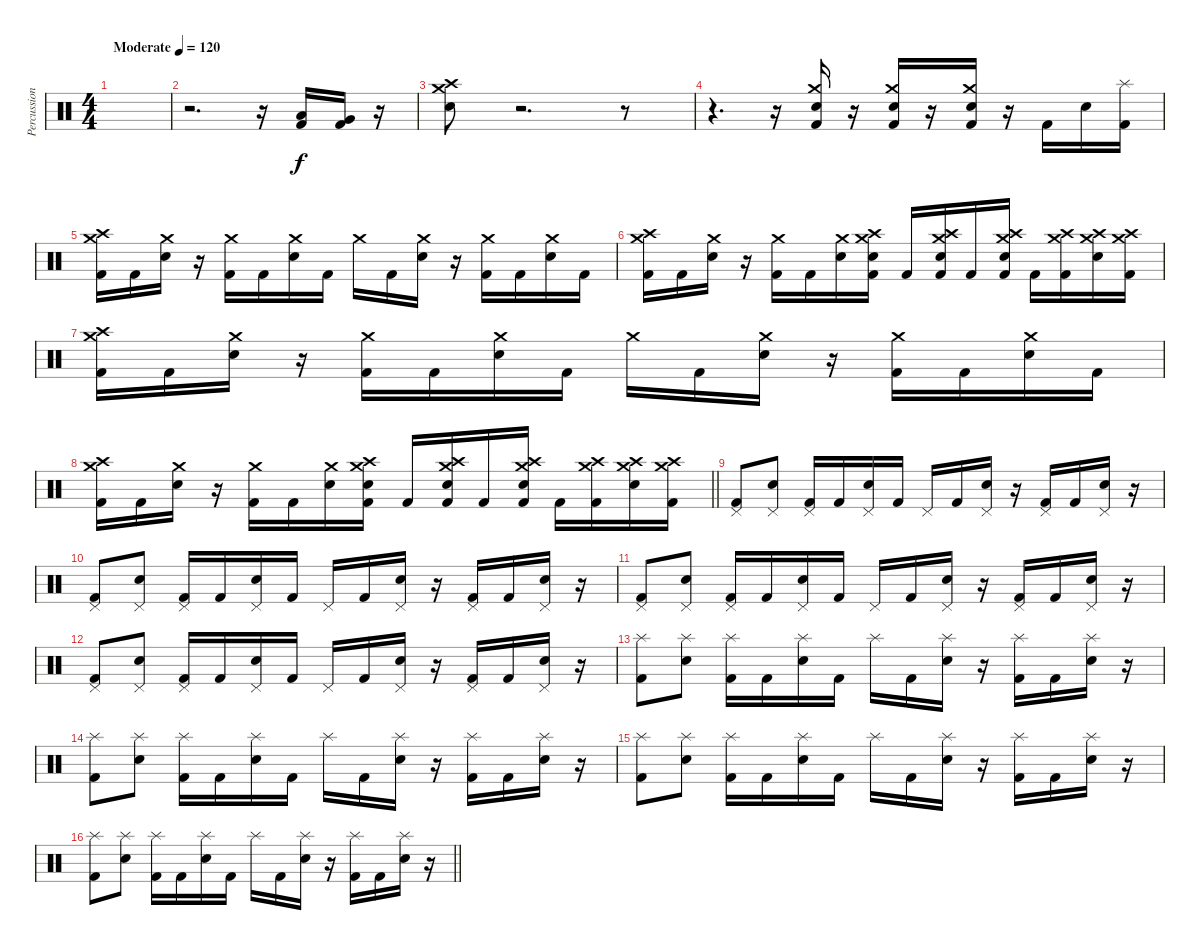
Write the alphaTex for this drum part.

\track ("Percussion" "Percussion") {instrument percussion}
\staff {score}
\articulation defaults
\ts (4 4)
\tempo (120 "Moderate")
\clef neutral
\ks c
|
r.2{d} r.16 ("Low Tom (hit)" "Kick (hit) 2").16 ("Very Low Tom (hit)" "Kick (hit) 2").16 r.16 |
("Crash high (hit)" "Crash medium (hit)" "Electric Snare (hit)").8 r.2{d} r.8 |
r.4{d} r.16 ("Kick (hit) 2" "Crash medium (hit)" "Electric Snare (hit)").16 r.16 ("Kick (hit) 2" "Crash medium (hit)" "Electric Snare (hit)").16 r.16 ("Kick (hit) 2" "Crash medium (hit)" "Electric Snare (hit)").16 r.16 "Kick (hit) 2".16 "Electric Snare (hit)".16 ("Splash (hit)" "Kick (hit) 2").16 |
("Crash medium (hit)" "Crash high (hit)" "Kick (hit) 2").16 "Kick (hit) 2".16 ("Crash medium (hit)" "Electric Snare (hit)").16 r.16 ("Crash medium (hit)" "Kick (hit) 2").16 "Kick (hit) 2".16 ("Crash medium (hit)" "Electric Snare (hit)").16 "Kick (hit) 2".16 "Crash medium (hit)".16 "Kick (hit) 2".16 ("Crash medium (hit)" "Electric Snare (hit)").16 r.16 ("Crash medium (hit)" "Kick (hit) 2").16 "Kick (hit) 2".16 ("Crash medium (hit)" "Electric Snare (hit)").16 "Kick (hit) 2".16 |
("Crash medium (hit)" "Crash high (hit)" "Kick (hit) 2").16 "Kick (hit) 2".16 ("Crash medium (hit)" "Electric Snare (hit)").16 r.16 ("Crash medium (hit)" "Kick (hit) 2").16 "Kick (hit) 2".16 ("Crash medium (hit)" "Electric Snare (hit)").16 ("Crash high (hit)" "Crash medium (hit)" "Electric Snare (hit)" "Kick (hit) 2").16 "Kick (hit) 2".16 ("Crash high (hit)" "Crash medium (hit)" "Electric Snare (hit)" "Kick (hit) 2").16 "Kick (hit) 2".16 ("Crash high (hit)" "Crash medium (hit)" "Electric Snare (hit)" "Kick (hit) 2").16 "Kick (hit) 2".16 ("Crash high (hit)" "Crash medium (hit)" "Kick (hit) 2").16 ("Crash high (hit)" "Crash medium (hit)" "Electric Snare (hit)").16 ("Crash high (hit)" "Crash medium (hit)" "Kick (hit) 2").16 |
("Crash medium (hit)" "Crash high (hit)" "Kick (hit) 2").16 "Kick (hit) 2".16 ("Crash medium (hit)" "Electric Snare (hit)").16 r.16 ("Crash medium (hit)" "Kick (hit) 2").16 "Kick (hit) 2".16 ("Crash medium (hit)" "Electric Snare (hit)").16 "Kick (hit) 2".16 "Crash medium (hit)".16 "Kick (hit) 2".16 ("Crash medium (hit)" "Electric Snare (hit)").16 r.16 ("Crash medium (hit)" "Kick (hit) 2").16 "Kick (hit) 2".16 ("Crash medium (hit)" "Electric Snare (hit)").16 "Kick (hit) 2".16 |
\barLineRight lightlight
("Crash medium (hit)" "Crash high (hit)" "Kick (hit) 2").16 "Kick (hit) 2".16 ("Crash medium (hit)" "Electric Snare (hit)").16 r.16 ("Crash medium (hit)" "Kick (hit) 2").16 "Kick (hit) 2".16 ("Crash medium (hit)" "Electric Snare (hit)").16 ("Crash high (hit)" "Crash medium (hit)" "Electric Snare (hit)" "Kick (hit) 2").16 "Kick (hit) 2".16 ("Crash high (hit)" "Crash medium (hit)" "Electric Snare (hit)" "Kick (hit) 2").16 "Kick (hit) 2".16 ("Crash high (hit)" "Crash medium (hit)" "Electric Snare (hit)" "Kick (hit) 2").16 "Kick (hit) 2".16 ("Crash high (hit)" "Crash medium (hit)" "Kick (hit) 2").16 ("Crash high (hit)" "Crash medium (hit)" "Electric Snare (hit)").16 ("Crash high (hit)" "Crash medium (hit)" "Kick (hit) 2").16 |
("Pedal Hi-Hat (hit)" "Kick (hit) 2").8 ("Pedal Hi-Hat (hit)" "Electric Snare (hit)").8 ("Pedal Hi-Hat (hit)" "Kick (hit) 2").16 "Kick (hit) 2".16 ("Pedal Hi-Hat (hit)" "Electric Snare (hit)").16 "Kick (hit) 2".16 "Pedal Hi-Hat (hit)".16 "Kick (hit) 2".16 ("Pedal Hi-Hat (hit)" "Electric Snare (hit)").16 r.16 ("Pedal Hi-Hat (hit)" "Kick (hit) 2").16 "Kick (hit) 2".16 ("Pedal Hi-Hat (hit)" "Electric Snare (hit)").16 r.16 |
("Pedal Hi-Hat (hit)" "Kick (hit) 2").8 ("Pedal Hi-Hat (hit)" "Electric Snare (hit)").8 ("Pedal Hi-Hat (hit)" "Kick (hit) 2").16 "Kick (hit) 2".16 ("Pedal Hi-Hat (hit)" "Electric Snare (hit)").16 "Kick (hit) 2".16 "Pedal Hi-Hat (hit)".16 "Kick (hit) 2".16 ("Pedal Hi-Hat (hit)" "Electric Snare (hit)").16 r.16 ("Pedal Hi-Hat (hit)" "Kick (hit) 2").16 "Kick (hit) 2".16 ("Pedal Hi-Hat (hit)" "Electric Snare (hit)").16 r.16 |
("Pedal Hi-Hat (hit)" "Kick (hit) 2").8 ("Pedal Hi-Hat (hit)" "Electric Snare (hit)").8 ("Pedal Hi-Hat (hit)" "Kick (hit) 2").16 "Kick (hit) 2".16 ("Pedal Hi-Hat (hit)" "Electric Snare (hit)").16 "Kick (hit) 2".16 "Pedal Hi-Hat (hit)".16 "Kick (hit) 2".16 ("Pedal Hi-Hat (hit)" "Electric Snare (hit)").16 r.16 ("Pedal Hi-Hat (hit)" "Kick (hit) 2").16 "Kick (hit) 2".16 ("Pedal Hi-Hat (hit)" "Electric Snare (hit)").16 r.16 |
("Pedal Hi-Hat (hit)" "Kick (hit) 2").8 ("Pedal Hi-Hat (hit)" "Electric Snare (hit)").8 ("Pedal Hi-Hat (hit)" "Kick (hit) 2").16 "Kick (hit) 2".16 ("Pedal Hi-Hat (hit)" "Electric Snare (hit)").16 "Kick (hit) 2".16 "Pedal Hi-Hat (hit)".16 "Kick (hit) 2".16 ("Pedal Hi-Hat (hit)" "Electric Snare (hit)").16 r.16 ("Pedal Hi-Hat (hit)" "Kick (hit) 2").16 "Kick (hit) 2".16 ("Pedal Hi-Hat (hit)" "Electric Snare (hit)").16 r.16 |
("Splash (hit)" "Kick (hit) 2").8 ("Splash (hit)" "Electric Snare (hit)").8 ("Splash (hit)" "Kick (hit) 2").16 "Kick (hit) 2".16 ("Splash (hit)" "Electric Snare (hit)").16 "Kick (hit) 2".16 "Splash (hit)".16 "Kick (hit) 2".16 ("Splash (hit)" "Electric Snare (hit)").16 r.16 ("Splash (hit)" "Kick (hit) 2").16 "Kick (hit) 2".16 ("Splash (hit)" "Electric Snare (hit)").16 r.16 |
("Splash (hit)" "Kick (hit) 2").8 ("Splash (hit)" "Electric Snare (hit)").8 ("Splash (hit)" "Kick (hit) 2").16 "Kick (hit) 2".16 ("Splash (hit)" "Electric Snare (hit)").16 "Kick (hit) 2".16 "Splash (hit)".16 "Kick (hit) 2".16 ("Splash (hit)" "Electric Snare (hit)").16 r.16 ("Splash (hit)" "Kick (hit) 2").16 "Kick (hit) 2".16 ("Splash (hit)" "Electric Snare (hit)").16 r.16 |
("Splash (hit)" "Kick (hit) 2").8 ("Splash (hit)" "Electric Snare (hit)").8 ("Splash (hit)" "Kick (hit) 2").16 "Kick (hit) 2".16 ("Splash (hit)" "Electric Snare (hit)").16 "Kick (hit) 2".16 "Splash (hit)".16 "Kick (hit) 2".16 ("Splash (hit)" "Electric Snare (hit)").16 r.16 ("Splash (hit)" "Kick (hit) 2").16 "Kick (hit) 2".16 ("Splash (hit)" "Electric Snare (hit)").16 r.16 |
\barLineRight lightlight
("Splash (hit)" "Kick (hit) 2").8 ("Splash (hit)" "Electric Snare (hit)").8 ("Splash (hit)" "Kick (hit) 2").16 "Kick (hit) 2".16 ("Splash (hit)" "Electric Snare (hit)").16 "Kick (hit) 2".16 "Splash (hit)".16 "Kick (hit) 2".16 ("Splash (hit)" "Electric Snare (hit)").16 r.16 ("Splash (hit)" "Kick (hit) 2").16 "Kick (hit) 2".16 ("Splash (hit)" "Electric Snare (hit)").16 r.16
